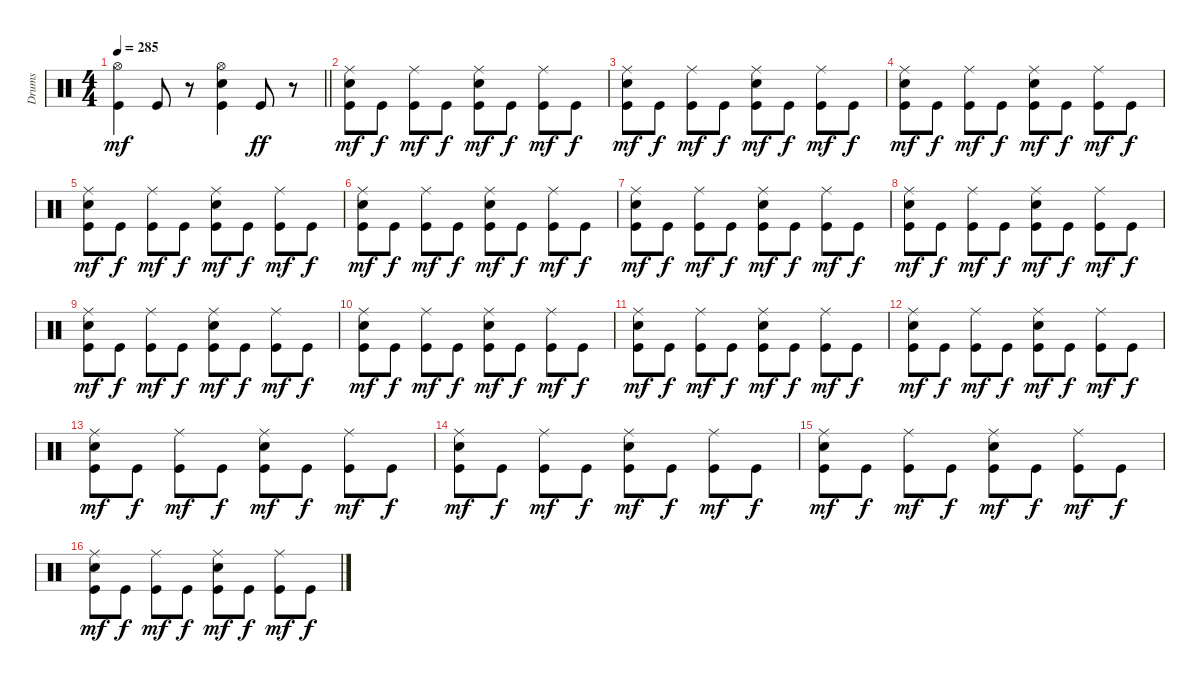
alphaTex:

\track ("Drums" "Drums") {instrument percussion}
\staff {score}
\articulation defaults
\ts (4 4)
\tempo 285
\clef neutral
\barLineRight lightlight
\ks c
("Hi-Hat (open)" "Kick (hit)").4{dy mf} "Kick (hit)".8 r.8 ("Hi-Hat (open)" "Snare (hit) 2" "Kick (hit)").4 "Kick (hit)".8{dy ff} r.8 |
("Ride (middle)" "Snare (hit) 2" "Kick (hit)").8{dy mf} "Kick (hit)".8{dy f} ("Ride (middle)" "Kick (hit)").8{dy mf} "Kick (hit)".8{dy f} ("Ride (middle)" "Snare (hit) 2" "Kick (hit)").8{dy mf} "Kick (hit)".8{dy f} ("Ride (middle)" "Kick (hit)").8{dy mf} "Kick (hit)".8{dy f} |
("Ride (middle)" "Snare (hit) 2" "Kick (hit)").8{dy mf} "Kick (hit)".8{dy f} ("Ride (middle)" "Kick (hit)").8{dy mf} "Kick (hit)".8{dy f} ("Ride (middle)" "Snare (hit) 2" "Kick (hit)").8{dy mf} "Kick (hit)".8{dy f} ("Ride (middle)" "Kick (hit)").8{dy mf} "Kick (hit)".8{dy f} |
("Ride (middle)" "Snare (hit) 2" "Kick (hit)").8{dy mf} "Kick (hit)".8{dy f} ("Ride (middle)" "Kick (hit)").8{dy mf} "Kick (hit)".8{dy f} ("Ride (middle)" "Snare (hit) 2" "Kick (hit)").8{dy mf} "Kick (hit)".8{dy f} ("Ride (middle)" "Kick (hit)").8{dy mf} "Kick (hit)".8{dy f} |
("Ride (middle)" "Snare (hit) 2" "Kick (hit)").8{dy mf} "Kick (hit)".8{dy f} ("Ride (middle)" "Kick (hit)").8{dy mf} "Kick (hit)".8{dy f} ("Ride (middle)" "Snare (hit) 2" "Kick (hit)").8{dy mf} "Kick (hit)".8{dy f} ("Ride (middle)" "Kick (hit)").8{dy mf} "Kick (hit)".8{dy f} |
("Ride (middle)" "Snare (hit) 2" "Kick (hit)").8{dy mf} "Kick (hit)".8{dy f} ("Ride (middle)" "Kick (hit)").8{dy mf} "Kick (hit)".8{dy f} ("Ride (middle)" "Snare (hit) 2" "Kick (hit)").8{dy mf} "Kick (hit)".8{dy f} ("Ride (middle)" "Kick (hit)").8{dy mf} "Kick (hit)".8{dy f} |
("Ride (middle)" "Snare (hit) 2" "Kick (hit)").8{dy mf} "Kick (hit)".8{dy f} ("Ride (middle)" "Kick (hit)").8{dy mf} "Kick (hit)".8{dy f} ("Ride (middle)" "Snare (hit) 2" "Kick (hit)").8{dy mf} "Kick (hit)".8{dy f} ("Ride (middle)" "Kick (hit)").8{dy mf} "Kick (hit)".8{dy f} |
("Ride (middle)" "Snare (hit) 2" "Kick (hit)").8{dy mf} "Kick (hit)".8{dy f} ("Ride (middle)" "Kick (hit)").8{dy mf} "Kick (hit)".8{dy f} ("Ride (middle)" "Snare (hit) 2" "Kick (hit)").8{dy mf} "Kick (hit)".8{dy f} ("Ride (middle)" "Kick (hit)").8{dy mf} "Kick (hit)".8{dy f} |
("Ride (middle)" "Snare (hit) 2" "Kick (hit)").8{dy mf} "Kick (hit)".8{dy f} ("Ride (middle)" "Kick (hit)").8{dy mf} "Kick (hit)".8{dy f} ("Ride (middle)" "Snare (hit) 2" "Kick (hit)").8{dy mf} "Kick (hit)".8{dy f} ("Ride (middle)" "Kick (hit)").8{dy mf} "Kick (hit)".8{dy f} |
("Ride (middle)" "Snare (hit) 2" "Kick (hit)").8{dy mf} "Kick (hit)".8{dy f} ("Ride (middle)" "Kick (hit)").8{dy mf} "Kick (hit)".8{dy f} ("Ride (middle)" "Snare (hit) 2" "Kick (hit)").8{dy mf} "Kick (hit)".8{dy f} ("Ride (middle)" "Kick (hit)").8{dy mf} "Kick (hit)".8{dy f} |
("Ride (middle)" "Snare (hit) 2" "Kick (hit)").8{dy mf} "Kick (hit)".8{dy f} ("Ride (middle)" "Kick (hit)").8{dy mf} "Kick (hit)".8{dy f} ("Ride (middle)" "Snare (hit) 2" "Kick (hit)").8{dy mf} "Kick (hit)".8{dy f} ("Ride (middle)" "Kick (hit)").8{dy mf} "Kick (hit)".8{dy f} |
("Ride (middle)" "Snare (hit) 2" "Kick (hit)").8{dy mf} "Kick (hit)".8{dy f} ("Ride (middle)" "Kick (hit)").8{dy mf} "Kick (hit)".8{dy f} ("Ride (middle)" "Snare (hit) 2" "Kick (hit)").8{dy mf} "Kick (hit)".8{dy f} ("Ride (middle)" "Kick (hit)").8{dy mf} "Kick (hit)".8{dy f} |
("Ride (middle)" "Snare (hit) 2" "Kick (hit)").8{dy mf} "Kick (hit)".8{dy f} ("Ride (middle)" "Kick (hit)").8{dy mf} "Kick (hit)".8{dy f} ("Ride (middle)" "Snare (hit) 2" "Kick (hit)").8{dy mf} "Kick (hit)".8{dy f} ("Ride (middle)" "Kick (hit)").8{dy mf} "Kick (hit)".8{dy f} |
("Ride (middle)" "Snare (hit) 2" "Kick (hit)").8{dy mf} "Kick (hit)".8{dy f} ("Ride (middle)" "Kick (hit)").8{dy mf} "Kick (hit)".8{dy f} ("Ride (middle)" "Snare (hit) 2" "Kick (hit)").8{dy mf} "Kick (hit)".8{dy f} ("Ride (middle)" "Kick (hit)").8{dy mf} "Kick (hit)".8{dy f} |
("Ride (middle)" "Snare (hit) 2" "Kick (hit)").8{dy mf} "Kick (hit)".8{dy f} ("Ride (middle)" "Kick (hit)").8{dy mf} "Kick (hit)".8{dy f} ("Ride (middle)" "Snare (hit) 2" "Kick (hit)").8{dy mf} "Kick (hit)".8{dy f} ("Ride (middle)" "Kick (hit)").8{dy mf} "Kick (hit)".8{dy f} |
("Ride (middle)" "Snare (hit) 2" "Kick (hit)").8{dy mf} "Kick (hit)".8{dy f} ("Ride (middle)" "Kick (hit)").8{dy mf} "Kick (hit)".8{dy f} ("Ride (middle)" "Snare (hit) 2" "Kick (hit)").8{dy mf} "Kick (hit)".8{dy f} ("Ride (middle)" "Kick (hit)").8{dy mf} "Kick (hit)".8{dy f}
